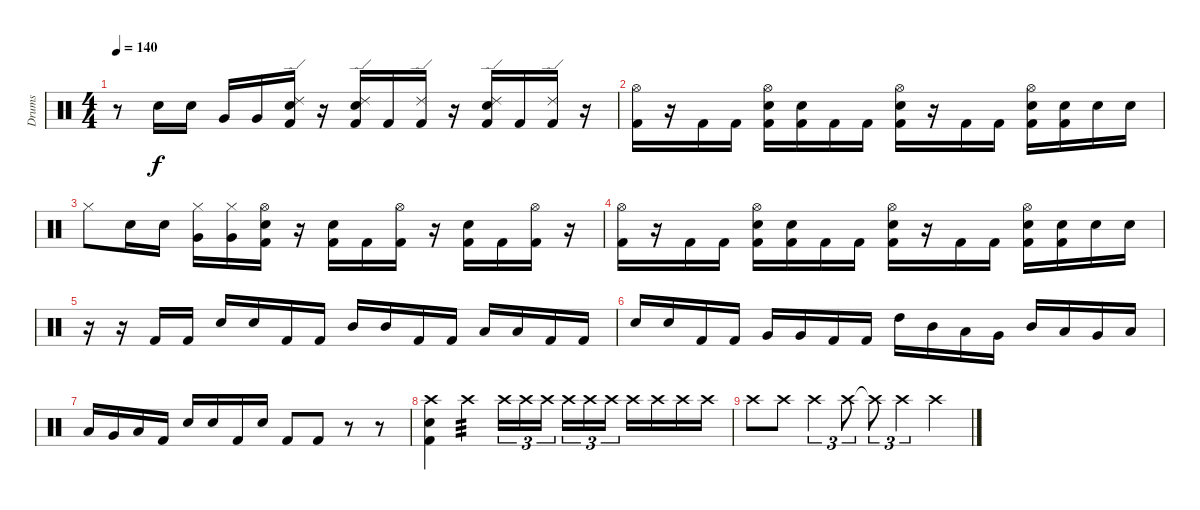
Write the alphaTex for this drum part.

\track ("Drums" "Drums") {instrument percussion}
\staff {score}
\articulation defaults
\ts (4 4)
\tempo 140
\clef neutral
\ks c
r.8{dy f} "Snare (hit) 2".16 "Snare (hit) 2".16 "Very Low Tom (hit)".16 "Very Low Tom (hit)".16 ("Ride (edge) 2" "Snare (hit) 2" "Kick (hit) 2").16 r.16 ("Ride (edge) 2" "Snare (hit) 2" "Kick (hit) 2").16 "Kick (hit) 2".16 ("Ride (edge) 2" "Kick (hit) 2").16 r.16 ("Ride (edge) 2" "Snare (hit) 2" "Kick (hit) 2").16 "Kick (hit) 2".16 ("Ride (edge) 2" "Kick (hit) 2").16 r.16 |
("Hi-Hat (open)" "Kick (hit) 2").16 r.16 "Kick (hit) 2".16 "Kick (hit) 2".16 ("Hi-Hat (open)" "Snare (hit) 2" "Kick (hit) 2").16 ("Snare (hit) 2" "Kick (hit) 2").16 "Kick (hit) 2".16 "Kick (hit) 2".16 ("Hi-Hat (open)" "Snare (hit) 2" "Kick (hit) 2").16 r.16 "Kick (hit) 2".16 "Kick (hit) 2".16 ("Hi-Hat (open)" "Snare (hit) 2" "Kick (hit) 2").16 ("Snare (hit) 2" "Kick (hit) 2").16 "Snare (hit) 2".16 "Snare (hit) 2".16 |
"Hi-Hat (closed)".8 "Snare (hit) 2".16 "Snare (hit) 2".16 ("Hi-Hat (closed)" "Very Low Tom (hit)").16 ("Hi-Hat (closed)" "Very Low Tom (hit)").16 ("Hi-Hat (open)" "Snare (hit) 2" "Kick (hit) 2").16 r.16 ("Snare (hit) 2" "Kick (hit) 2").16 "Kick (hit) 2".16 ("Hi-Hat (open)" "Kick (hit) 2").16 r.16 ("Snare (hit) 2" "Kick (hit) 2").16 "Kick (hit) 2".16 ("Hi-Hat (open)" "Kick (hit) 2").16 r.16 |
("Hi-Hat (open)" "Kick (hit) 2").16 r.16 "Kick (hit) 2".16 "Kick (hit) 2".16 ("Hi-Hat (open)" "Snare (hit) 2" "Kick (hit) 2").16 ("Snare (hit) 2" "Kick (hit) 2").16 "Kick (hit) 2".16 "Kick (hit) 2".16 ("Hi-Hat (open)" "Snare (hit) 2" "Kick (hit) 2").16 r.16 "Kick (hit) 2".16 "Kick (hit) 2".16 ("Hi-Hat (open)" "Snare (hit) 2" "Kick (hit) 2").16 ("Snare (hit) 2" "Kick (hit) 2").16 "Snare (hit) 2".16 "Snare (hit) 2".16 |
r.16 r.16 "Kick (hit) 2".16 "Kick (hit) 2".16 "Snare (hit) 2".16 "Snare (hit) 2".16 "Kick (hit) 2".16 "Kick (hit) 2".16 "Mid Tom (hit)".16 "Mid Tom (hit)".16 "Kick (hit) 2".16 "Kick (hit) 2".16 "Low Tom (hit)".16 "Low Tom (hit)".16 "Kick (hit) 2".16 "Kick (hit) 2".16 |
"Snare (hit) 2".16 "Snare (hit) 2".16 "Kick (hit) 2".16 "Kick (hit) 2".16 "Very Low Tom (hit)".16 "Very Low Tom (hit)".16 "Kick (hit) 2".16 "Kick (hit) 2".16 "High Tom (hit)".16 "Mid Tom (hit)".16 "Low Tom (hit)".16 "Very Low Tom (hit)".16 "Mid Tom (hit)".16 "Low Tom (hit)".16 "Very Low Tom (hit)".16 "Low Floor Tom (hit)".16 |
"Low Tom (hit)".16 "Very Low Tom (hit)".16 "Low Floor Tom (hit)".16 "Kick (hit) 2".16 "Snare (hit) 2".16 "Snare (hit) 2".16 "Kick (hit) 2".16 "Snare (hit) 2".16 "Kick (hit) 2".8 "Kick (hit) 2".8 r.8 r.8 |
("Crash high (hit)" "Snare (hit) 2" "Kick (hit) 2").4 "Crash high (hit)".4{tp 3} "Crash high (hit)".16{tu (3 2)} "Crash high (hit)".16{tu (3 2)} "Crash high (hit)".16{tu (3 2) beam splitsecondary} "Crash high (hit)".16{tu (3 2)} "Crash high (hit)".16{tu (3 2)} "Crash high (hit)".16{tu (3 2)} "Crash high (hit)".16 "Crash high (hit)".16 "Crash high (hit)".16 "Crash high (hit)".16 |
"Crash high (hit)".8 "Crash high (hit)".8 "Crash high (hit)".4{tu (3 2)} "Crash high (hit)".8{tu (3 2)} "Crash high (hit)"{t}.8{tu (3 2)} "Crash high (hit)".4{tu (3 2)} "Crash high (hit)".4
